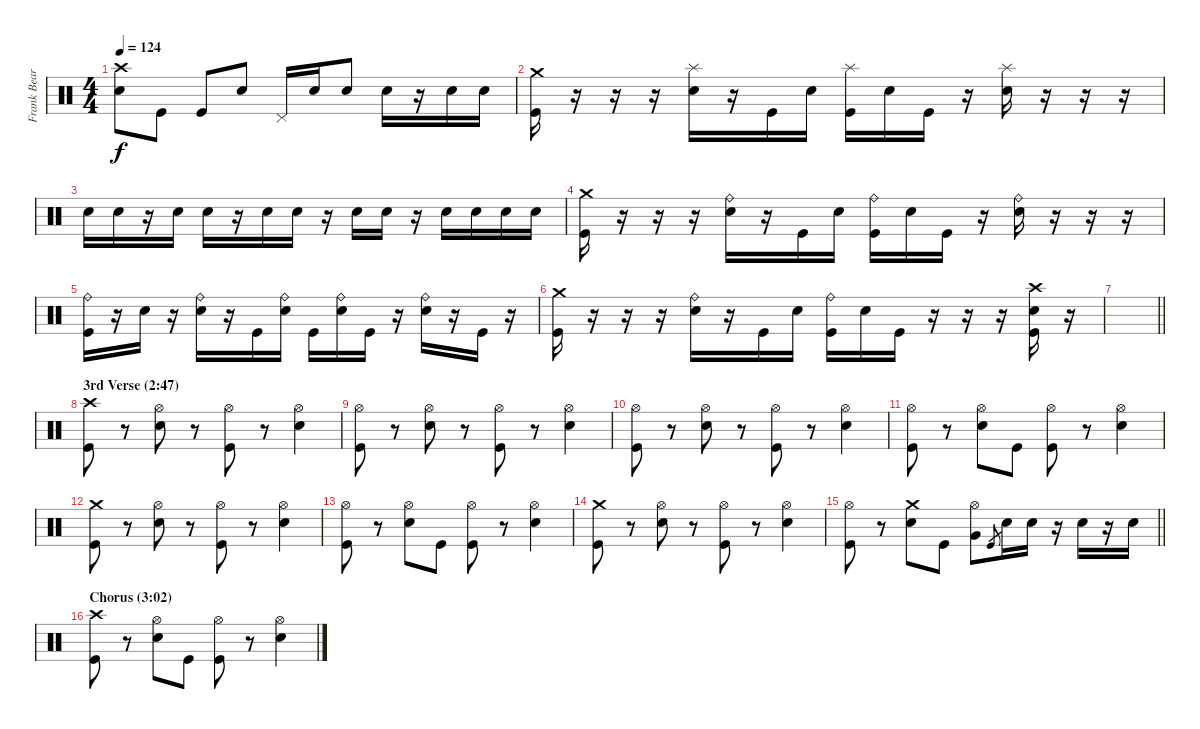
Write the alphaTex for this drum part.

\track ("Frank Beard" "Frank Bear") {instrument percussion}
\staff {score}
\articulation defaults
\ts (4 4)
\tempo 124
\clef neutral
\ks c
("Crash high (hit)" "Electric Snare (hit)").8{dy f} "Kick (hit)".8 "Kick (hit)".8 "Electric Snare (hit)".8 "Pedal Hi-Hat (hit)".16 "Electric Snare (hit)".16 "Electric Snare (hit)".8 "Electric Snare (hit)".16 r.16 "Electric Snare (hit)".16 "Electric Snare (hit)".16 |
("Crash medium (hit)" "Kick (hit)").16 r.16 r.16 r.16 ("Splash (hit)" "Electric Snare (hit)").16 r.16 "Kick (hit)".16 "Electric Snare (hit)".16 ("Splash (hit)" "Kick (hit)").16 "Electric Snare (hit)".16 "Kick (hit)".16 r.16 ("Splash (hit)" "Electric Snare (hit)").16 r.16 r.16 r.16 |
"Electric Snare (hit)".16 "Electric Snare (hit)".16 r.16 "Electric Snare (hit)".16 "Electric Snare (hit)".16 r.16 "Electric Snare (hit)".16 "Electric Snare (hit)".16 r.16 "Electric Snare (hit)".16 "Electric Snare (hit)".16 r.16 "Electric Snare (hit)".16 "Electric Snare (hit)".16 "Electric Snare (hit)".16 "Electric Snare (hit)".16 |
("Crash medium (hit)" "Kick (hit)").16 r.16 r.16 r.16 ("Ride (bell)" "Electric Snare (hit)").16 r.16 "Kick (hit)".16 "Electric Snare (hit)".16 ("Ride (bell)" "Kick (hit)").16 "Electric Snare (hit)".16 "Kick (hit)".16 r.16 ("Ride (bell)" "Electric Snare (hit)").16 r.16 r.16 r.16 |
("Ride (bell)" "Kick (hit)").16 r.16 "Electric Snare (hit)".16 r.16 ("Ride (bell)" "Electric Snare (hit)").16 r.16 "Kick (hit)".16 ("Ride (bell)" "Electric Snare (hit)").16 "Kick (hit)".16 ("Ride (bell)" "Electric Snare (hit)").16 "Kick (hit)".16 r.16 ("Ride (bell)" "Electric Snare (hit)").16 r.16 "Kick (hit)".16 r.16 |
("Crash medium (hit)" "Kick (hit)").16 r.16 r.16 r.16 ("Ride (bell)" "Electric Snare (hit)").16 r.16 "Kick (hit)".16 "Electric Snare (hit)".16 ("Ride (bell)" "Kick (hit)").16 "Electric Snare (hit)".16 "Kick (hit)".16 r.16 r.16 r.16 ("Crash high (hit)" "Electric Snare (hit)" "Kick (hit)").16 r.16 |
\barLineRight lightlight
|
\section ("" "3rd Verse (2:47)")
("Crash high (hit)" "Kick (hit)").8 r.8 ("Hi-Hat (open)" "Electric Snare (hit)").8 r.8 ("Hi-Hat (open)" "Kick (hit)").8 r.8 ("Hi-Hat (open)" "Electric Snare (hit)").4 |
("Hi-Hat (open)" "Kick (hit)").8 r.8 ("Hi-Hat (open)" "Electric Snare (hit)").8 r.8 ("Hi-Hat (open)" "Kick (hit)").8 r.8 ("Hi-Hat (open)" "Electric Snare (hit)").4 |
("Hi-Hat (open)" "Kick (hit)").8 r.8 ("Hi-Hat (open)" "Electric Snare (hit)").8 r.8 ("Hi-Hat (open)" "Kick (hit)").8 r.8 ("Hi-Hat (open)" "Electric Snare (hit)").4 |
("Hi-Hat (open)" "Kick (hit)").8 r.8 ("Hi-Hat (open)" "Electric Snare (hit)").8 "Kick (hit)".8 ("Hi-Hat (open)" "Kick (hit)").8 r.8 ("Hi-Hat (open)" "Electric Snare (hit)").4 |
("Crash medium (hit)" "Kick (hit)").8 r.8 ("Hi-Hat (open)" "Electric Snare (hit)").8 r.8 ("Hi-Hat (open)" "Kick (hit)").8 r.8 ("Hi-Hat (open)" "Electric Snare (hit)").4 |
("Hi-Hat (open)" "Kick (hit)").8 r.8 ("Hi-Hat (open)" "Electric Snare (hit)").8 "Kick (hit)".8 ("Hi-Hat (open)" "Kick (hit)").8 r.8 ("Hi-Hat (open)" "Electric Snare (hit)").4 |
("Crash medium (hit)" "Kick (hit)").8 r.8 ("Hi-Hat (open)" "Electric Snare (hit)").8 r.8 ("Hi-Hat (open)" "Kick (hit)").8 r.8 ("Hi-Hat (open)" "Electric Snare (hit)").4 |
\barLineRight lightlight
("Hi-Hat (open)" "Kick (hit)").8 r.8 ("Crash medium (hit)" "Electric Snare (hit)").8 "Kick (hit)".8 ("Hi-Hat (open)" "Very Low Tom (hit)").8 "Kick (hit)".8{gr} "Electric Snare (hit)".16 "Electric Snare (hit)".16 r.16 "Electric Snare (hit)".16 r.16 "Electric Snare (hit)".16 |
\section ("" "Chorus (3:02)")
("Crash high (hit)" "Kick (hit)").8 r.8 ("Hi-Hat (open)" "Electric Snare (hit)").8 "Kick (hit)".8 ("Hi-Hat (open)" "Kick (hit)").8 r.8 ("Hi-Hat (open)" "Electric Snare (hit)").4
